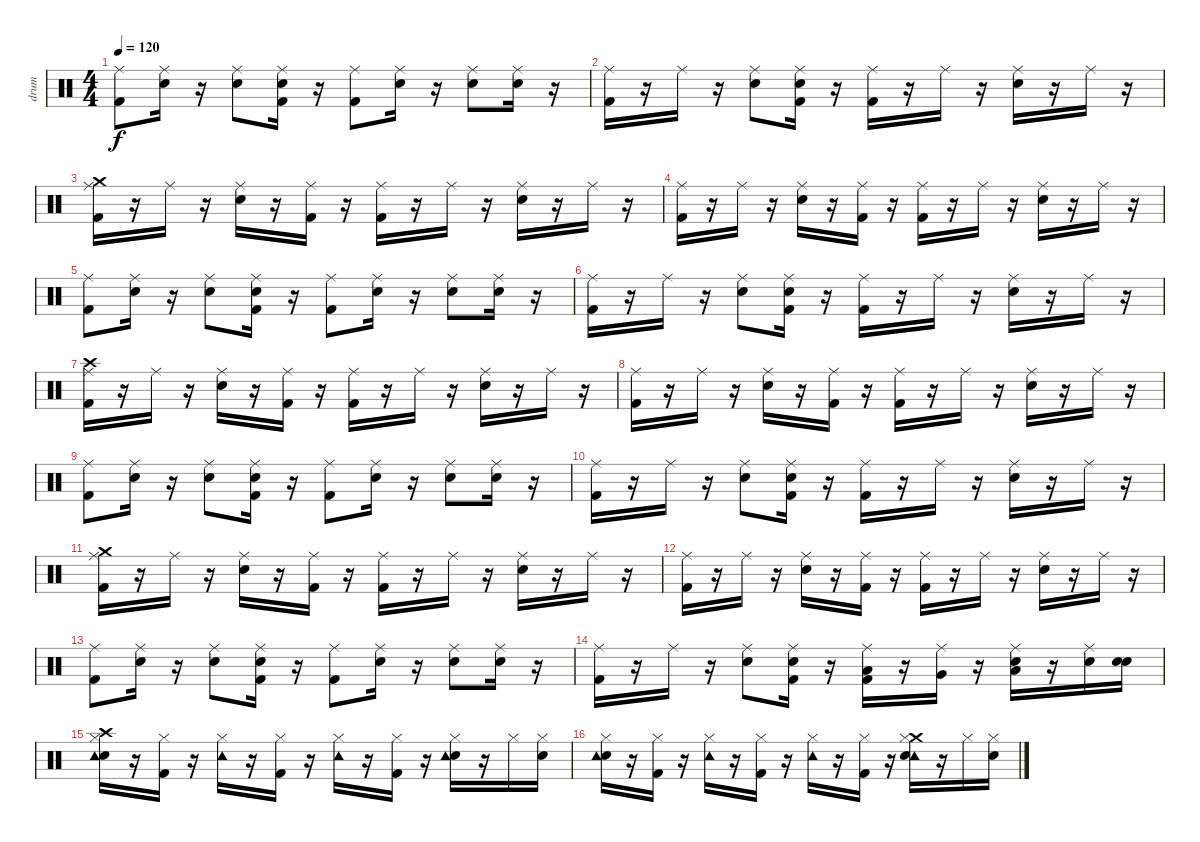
\track ("drum" "drum") {instrument percussion}
\staff {score}
\articulation defaults
\ts (4 4)
\tempo 120
\clef neutral
\ks c
("Kick (hit) 2" "Ride (middle)").8{dy f} ("Snare (hit)" "Ride (middle)").16 r.16 ("Ride (middle)" "Snare (hit) 2").8 ("Snare (hit)" "Kick (hit) 2" "Ride (middle)").16 r.16 ("Ride (middle)" "Kick (hit) 2").8 ("Snare (hit)" "Ride (middle)").16 r.16 ("Snare (hit) 2" "Ride (middle)").8 ("Snare (hit)" "Ride (middle)").16 r.16 |
("Kick (hit) 2" "Ride (middle)").16 r.16 "Ride (middle)".16 r.16 ("Snare (hit) 2" "Ride (middle)").8 ("Snare (hit)" "Ride (middle)" "Kick (hit) 2").16 r.16 ("Ride (middle)" "Kick (hit) 2").16 r.16 "Ride (middle)".16 r.16 ("Ride (middle)" "Snare (hit) 2").16 r.16 "Ride (middle)".16 r.16 |
("Crash medium (hit)" "Kick (hit) 2" "Ride (middle)").16 r.16 "Ride (middle)".16 r.16 ("Snare (hit) 2" "Ride (middle)").16 r.16 ("Kick (hit) 2" "Ride (middle)").16 r.16 ("Kick (hit) 2" "Ride (middle)").16 r.16 "Ride (middle)".16 r.16 ("Ride (middle)" "Snare (hit) 2").16 r.16 "Ride (middle)".16 r.16 |
("Ride (middle)" "Kick (hit) 2").16 r.16 "Ride (middle)".16 r.16 ("Snare (hit) 2" "Ride (middle)").16 r.16 ("Kick (hit) 2" "Ride (middle)").16 r.16 ("Ride (middle)" "Kick (hit) 2").16 r.16 "Ride (middle)".16 r.16 ("Snare (hit) 2" "Ride (middle)").16 r.16 "Ride (middle)".16 r.16 |
("Ride (middle)" "Kick (hit) 2").8 ("Snare (hit)" "Ride (middle)").16 r.16 ("Ride (middle)" "Snare (hit) 2").8 ("Snare (hit)" "Ride (middle)" "Kick (hit) 2").16 r.16 ("Kick (hit) 2" "Ride (middle)").8 ("Snare (hit)" "Ride (middle)").16 r.16 ("Ride (middle)" "Snare (hit) 2").8 ("Snare (hit)" "Ride (middle)").16 r.16 |
("Ride (middle)" "Kick (hit) 2").16 r.16 "Ride (middle)".16 r.16 ("Ride (middle)" "Snare (hit) 2").8 ("Snare (hit)" "Kick (hit) 2" "Ride (middle)").16 r.16 ("Ride (middle)" "Kick (hit) 2").16 r.16 "Ride (middle)".16 r.16 ("Ride (middle)" "Snare (hit) 2").16 r.16 "Ride (middle)".16 r.16 |
("Ride (middle)" "Kick (hit) 2" "Crash high (hit)").16 r.16 "Ride (middle)".16 r.16 ("Snare (hit) 2" "Ride (middle)").16 r.16 ("Kick (hit) 2" "Ride (middle)").16 r.16 ("Ride (middle)" "Kick (hit) 2").16 r.16 "Ride (middle)".16 r.16 ("Ride (middle)" "Snare (hit) 2").16 r.16 "Ride (middle)".16 r.16 |
("Kick (hit) 2" "Ride (middle)").16 r.16 "Ride (middle)".16 r.16 ("Ride (middle)" "Snare (hit) 2").16 r.16 ("Ride (middle)" "Kick (hit) 2").16 r.16 ("Ride (middle)" "Kick (hit) 2").16 r.16 "Ride (middle)".16 r.16 ("Ride (middle)" "Snare (hit) 2").16 r.16 "Ride (middle)".16 r.16 |
("Ride (middle)" "Kick (hit) 2").8 ("Snare (hit)" "Ride (middle)").16 r.16 ("Ride (middle)" "Snare (hit) 2").8 ("Snare (hit)" "Ride (middle)" "Kick (hit) 2").16 r.16 ("Kick (hit) 2" "Ride (middle)").8 ("Snare (hit)" "Ride (middle)").16 r.16 ("Snare (hit) 2" "Ride (middle)").8 ("Snare (hit)" "Ride (middle)").16 r.16 |
("Kick (hit) 2" "Ride (middle)").16 r.16 "Ride (middle)".16 r.16 ("Snare (hit) 2" "Ride (middle)").8 ("Snare (hit)" "Kick (hit) 2" "Ride (middle)").16 r.16 ("Kick (hit) 2" "Ride (middle)").16 r.16 "Ride (middle)".16 r.16 ("Ride (middle)" "Snare (hit) 2").16 r.16 "Ride (middle)".16 r.16 |
("Crash medium (hit)" "Kick (hit) 2" "Ride (middle)").16 r.16 "Ride (middle)".16 r.16 ("Ride (middle)" "Snare (hit) 2").16 r.16 ("Ride (middle)" "Kick (hit) 2").16 r.16 ("Kick (hit) 2" "Ride (middle)").16 r.16 "Ride (middle)".16 r.16 ("Snare (hit) 2" "Ride (middle)").16 r.16 "Ride (middle)".16 r.16 |
("Ride (middle)" "Kick (hit) 2").16 r.16 "Ride (middle)".16 r.16 ("Snare (hit) 2" "Ride (middle)").16 r.16 ("Ride (middle)" "Kick (hit) 2").16 r.16 ("Ride (middle)" "Kick (hit) 2").16 r.16 "Ride (middle)".16 r.16 ("Ride (middle)" "Snare (hit) 2").16 r.16 "Ride (middle)".16 r.16 |
("Ride (middle)" "Kick (hit) 2").8 ("Snare (hit)" "Ride (middle)").16 r.16 ("Snare (hit) 2" "Ride (middle)").8 ("Snare (hit)" "Kick (hit) 2" "Ride (middle)").16 r.16 ("Kick (hit) 2" "Ride (middle)").8 ("Snare (hit)" "Ride (middle)").16 r.16 ("Ride (middle)" "Snare (hit) 2").8 ("Snare (hit)" "Ride (middle)").16 r.16 |
("Kick (hit) 2" "Ride (middle)").16 r.16 "Ride (middle)".16 r.16 ("Snare (hit) 2" "Ride (middle)").8 ("Snare (hit)" "Kick (hit) 2" "Ride (middle)").16 r.16 ("Kick (hit) 2" "Low Tom (hit)" "Ride (middle)").16 r.16 ("Ride (middle)" "Very Low Tom (hit)").16 r.16 ("Ride (middle)" "Snare (hit) 2" "Low Floor Tom (hit)").16 r.16 ("Snare (hit) 2" "Ride (middle)").16 ("Snare (hit)" "Snare (hit) 2").16 |
("Snare (hit)" "Crash high (hit)" "Hi-Hat (closed)" "Tambourine (hit)").16 r.16 ("Kick (hit) 2" "Hi-Hat (closed)").16 r.16 ("Hi-Hat (closed)" "Tambourine (hit)").16 r.16 ("Kick (hit) 2" "Hi-Hat (closed)").16 r.16 ("Tambourine (hit)" "Hi-Hat (closed)").16 r.16 ("Hi-Hat (closed)" "Kick (hit) 2").16 r.16 ("Hi-Hat (closed)" "Snare (hit) 2" "Tambourine (hit)").16 r.16 "Hi-Hat (closed)".16 ("Snare (hit)" "Hi-Hat (closed)").16 |
("Snare (hit)" "Tambourine (hit)" "Hi-Hat (closed)").16 r.16 ("Kick (hit) 2" "Hi-Hat (closed)").16 r.16 ("Hi-Hat (closed)" "Tambourine (hit)").16 r.16 ("Kick (hit) 2" "Hi-Hat (closed)").16 r.16 ("Tambourine (hit)" "Hi-Hat (closed)").16 r.16 ("Hi-Hat (closed)" "Kick (hit) 2").16 r.16 ("Crash medium (hit)" "Tambourine (hit)" "Snare (hit) 2" "Hi-Hat (closed)").16 r.16 "Hi-Hat (closed)".16 ("Snare (hit)" "Hi-Hat (closed)").16
